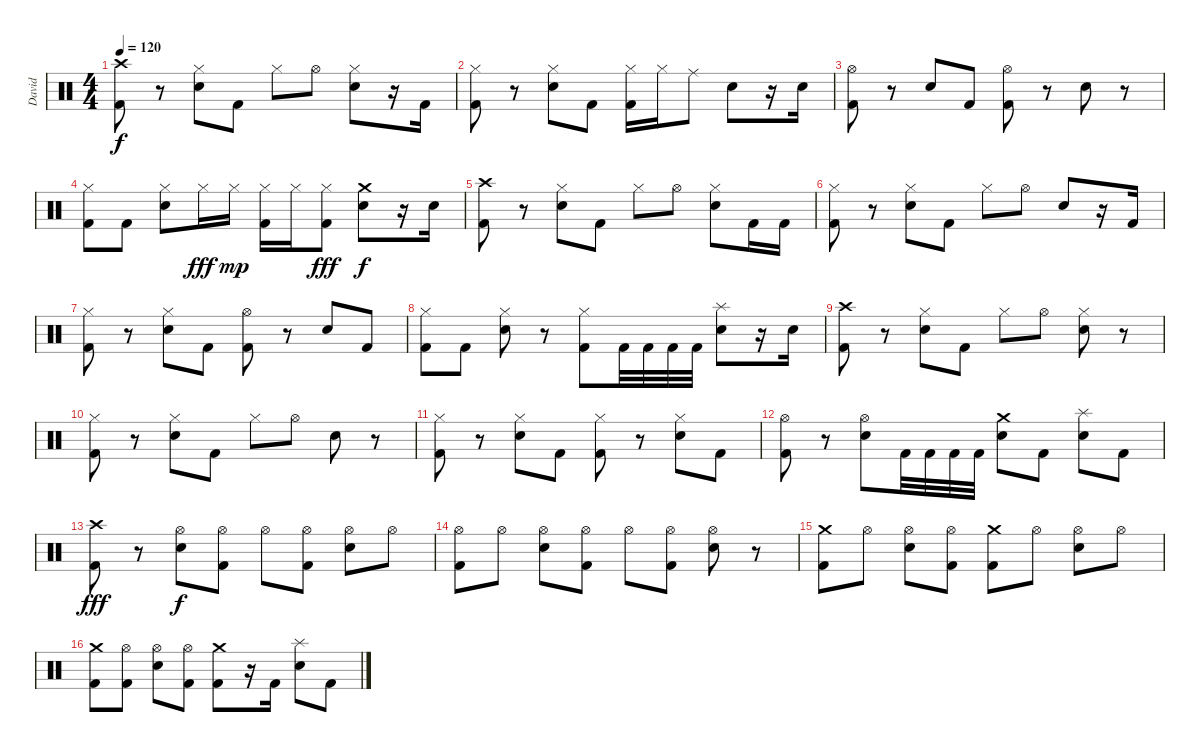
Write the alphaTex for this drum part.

\track ("David" "David") {instrument percussion}
\staff {score}
\articulation defaults
\ts (4 4)
\tempo 120
\clef neutral
\ks c
("Crash high (hit)" "Kick (hit) 2").8{dy f} r.8 ("Hi-Hat (closed)" "Electric Snare (hit)").8 "Kick (hit) 2".8 "Hi-Hat (closed)".8 "Hi-Hat (open)".8 ("Hi-Hat (closed)" "Electric Snare (hit)").8 r.16 "Kick (hit) 2".16 |
("Hi-Hat (closed)" "Kick (hit) 2").8 r.8 ("Hi-Hat (closed)" "Electric Snare (hit)").8 "Kick (hit) 2".8 ("Hi-Hat (closed)" "Kick (hit) 2").16 "Hi-Hat (closed)".16 "Ride (middle)".8 "Electric Snare (hit)".8 r.16 "Electric Snare (hit)".16 |
("Hi-Hat (open)" "Kick (hit) 2").8 r.8 "Electric Snare (hit)".8 "Kick (hit) 2".8 ("Hi-Hat (open)" "Kick (hit) 2").8 r.8 "Electric Snare (hit)".8 r.8 |
("Hi-Hat (closed)" "Kick (hit) 2").8 "Kick (hit) 2".8 ("Hi-Hat (closed)" "Electric Snare (hit)").8 "Hi-Hat (closed)".16{dy fff} "Hi-Hat (closed)".16{dy mp} ("Hi-Hat (closed)" "Kick (hit) 2").16 "Hi-Hat (closed)".16 ("Hi-Hat (closed)" "Kick (hit) 2").8{dy fff} ("Crash medium (hit)" "Electric Snare (hit)").8{dy f} r.16 "Electric Snare (hit)".16 |
("Crash high (hit)" "Kick (hit) 2").8 r.8 ("Hi-Hat (closed)" "Electric Snare (hit)").8 "Kick (hit) 2".8 "Hi-Hat (closed)".8 "Hi-Hat (open)".8 ("Hi-Hat (closed)" "Electric Snare (hit)").8 "Kick (hit) 2".16 "Kick (hit) 2".16 |
("Hi-Hat (closed)" "Kick (hit) 2").8 r.8 ("Hi-Hat (closed)" "Electric Snare (hit)").8 "Kick (hit) 2".8 "Hi-Hat (closed)".8 "Hi-Hat (open)".8 "Electric Snare (hit)".8 r.16 "Kick (hit) 2".16 |
("Hi-Hat (closed)" "Kick (hit) 2").8 r.8 ("Hi-Hat (closed)" "Electric Snare (hit)").8 "Kick (hit) 2".8 ("Hi-Hat (open)" "Kick (hit) 2").8 r.8 "Electric Snare (hit)".8 "Kick (hit) 2".8 |
("Hi-Hat (closed)" "Kick (hit) 2").8 "Kick (hit) 2".8 ("Hi-Hat (closed)" "Electric Snare (hit)").8 r.8 ("Hi-Hat (closed)" "Kick (hit) 2").8 "Kick (hit) 2".32 "Kick (hit) 2".32 "Kick (hit) 2".32 "Kick (hit) 2".32 ("Splash (hit)" "Electric Snare (hit)").8 r.16 "Electric Snare (hit)".16 |
("Crash high (hit)" "Kick (hit) 2").8 r.8 ("Hi-Hat (closed)" "Electric Snare (hit)").8 "Kick (hit) 2".8 "Hi-Hat (closed)".8 "Hi-Hat (open)".8 ("Hi-Hat (closed)" "Electric Snare (hit)").8 r.8 |
("Hi-Hat (closed)" "Kick (hit) 2").8 r.8 ("Hi-Hat (closed)" "Electric Snare (hit)").8 "Kick (hit) 2".8 "Hi-Hat (closed)".8 "Hi-Hat (open)".8 "Electric Snare (hit)".8 r.8 |
("Hi-Hat (closed)" "Kick (hit) 2").8 r.8 ("Hi-Hat (closed)" "Electric Snare (hit)").8 "Kick (hit) 2".8 ("Hi-Hat (closed)" "Kick (hit) 2").8 r.8 ("Hi-Hat (closed)" "Electric Snare (hit)").8 "Kick (hit) 2".8 |
("Hi-Hat (open)" "Kick (hit) 2").8 r.8 ("Hi-Hat (open)" "Electric Snare (hit)").8 "Kick (hit) 2".32 "Kick (hit) 2".32 "Kick (hit) 2".32 "Kick (hit) 2".32 ("Crash medium (hit)" "Electric Snare (hit)").8 "Kick (hit) 2".8 ("Splash (hit)" "Electric Snare (hit)").8 "Kick (hit) 2".8 |
("Crash high (hit)" "Kick (hit) 2").8{dy fff} r.8 ("Hi-Hat (open)" "Electric Snare (hit)").8{dy f} ("Hi-Hat (open)" "Kick (hit) 2").8 "Hi-Hat (open)".8 ("Hi-Hat (open)" "Kick (hit) 2").8 ("Hi-Hat (open)" "Electric Snare (hit)").8 "Hi-Hat (open)".8 |
("Hi-Hat (open)" "Kick (hit) 2").8 "Hi-Hat (open)".8 ("Hi-Hat (open)" "Electric Snare (hit)").8 ("Hi-Hat (open)" "Kick (hit) 2").8 "Hi-Hat (open)".8 ("Hi-Hat (open)" "Kick (hit) 2").8 ("Hi-Hat (open)" "Electric Snare (hit)").8 r.8 |
("Crash medium (hit)" "Kick (hit) 2").8 "Hi-Hat (open)".8 ("Hi-Hat (open)" "Electric Snare (hit)").8 ("Hi-Hat (open)" "Kick (hit) 2").8 ("Crash medium (hit)" "Kick (hit) 2").8 "Hi-Hat (open)".8 ("Hi-Hat (open)" "Electric Snare (hit)").8 "Hi-Hat (open)".8 |
("Crash medium (hit)" "Kick (hit) 2").8 ("Hi-Hat (open)" "Kick (hit) 2").8 ("Hi-Hat (open)" "Electric Snare (hit)").8 ("Hi-Hat (open)" "Kick (hit) 2").8 ("Crash medium (hit)" "Kick (hit) 2").8 r.16 "Kick (hit) 2".16 ("Splash (hit)" "Electric Snare (hit)").8 "Kick (hit) 2".8
